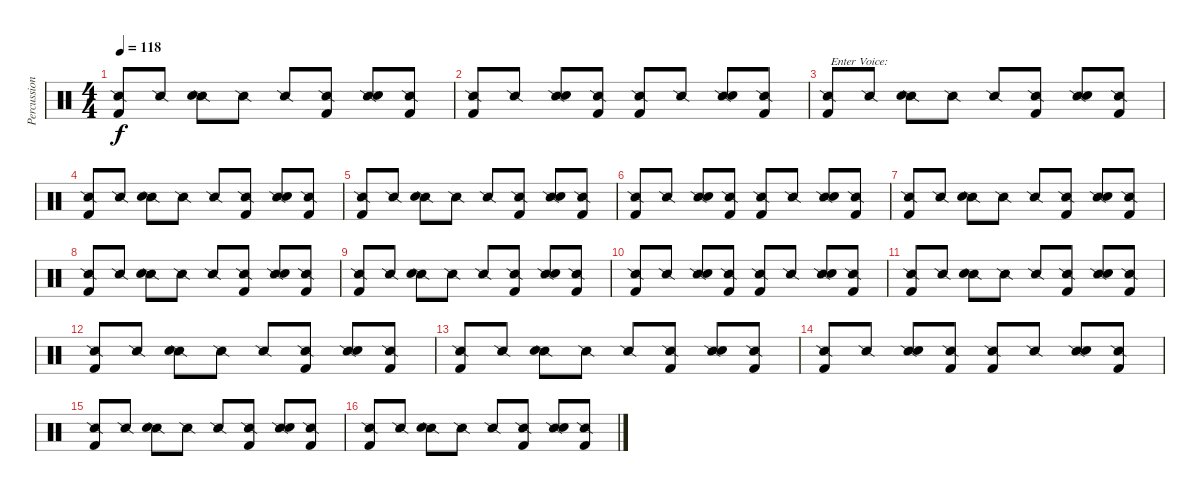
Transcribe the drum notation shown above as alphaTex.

\track ("Percussion" "Percussion") {instrument percussion}
\staff {score}
\articulation defaults
\ts (4 4)
\tempo 118
\clef neutral
\ks c
("Snare (side stick) 2" "Kick (hit) 2").8{dy f} "Snare (side stick) 2".8 ("Snare (side stick) 2" "Electric Snare (hit)").8 "Snare (side stick) 2".8 "Snare (side stick) 2".8 ("Snare (side stick) 2" "Kick (hit) 2").8 ("Snare (side stick) 2" "Electric Snare (hit)").8 ("Snare (side stick) 2" "Kick (hit) 2").8 |
("Snare (side stick) 2" "Kick (hit) 2").8 "Snare (side stick) 2".8 ("Snare (side stick) 2" "Electric Snare (hit)").8 ("Snare (side stick) 2" "Kick (hit) 2").8 ("Snare (side stick) 2" "Kick (hit) 2").8 "Snare (side stick) 2".8 ("Snare (side stick) 2" "Electric Snare (hit)").8 ("Snare (side stick) 2" "Kick (hit) 2").8 |
("Snare (side stick) 2" "Kick (hit) 2").8{txt "Enter Voice:"} "Snare (side stick) 2".8 ("Snare (side stick) 2" "Electric Snare (hit)").8 "Snare (side stick) 2".8 "Snare (side stick) 2".8 ("Snare (side stick) 2" "Kick (hit) 2").8 ("Snare (side stick) 2" "Electric Snare (hit)").8 ("Snare (side stick) 2" "Kick (hit) 2").8 |
("Snare (side stick) 2" "Kick (hit) 2").8 "Snare (side stick) 2".8 ("Snare (side stick) 2" "Electric Snare (hit)").8 "Snare (side stick) 2".8 "Snare (side stick) 2".8 ("Snare (side stick) 2" "Kick (hit) 2").8 ("Snare (side stick) 2" "Electric Snare (hit)").8 ("Snare (side stick) 2" "Kick (hit) 2").8 |
("Snare (side stick) 2" "Kick (hit) 2").8 "Snare (side stick) 2".8 ("Snare (side stick) 2" "Electric Snare (hit)").8 "Snare (side stick) 2".8 "Snare (side stick) 2".8 ("Snare (side stick) 2" "Kick (hit) 2").8 ("Snare (side stick) 2" "Electric Snare (hit)").8 ("Snare (side stick) 2" "Kick (hit) 2").8 |
("Snare (side stick) 2" "Kick (hit) 2").8 "Snare (side stick) 2".8 ("Snare (side stick) 2" "Electric Snare (hit)").8 ("Snare (side stick) 2" "Kick (hit) 2").8 ("Snare (side stick) 2" "Kick (hit) 2").8 "Snare (side stick) 2".8 ("Snare (side stick) 2" "Electric Snare (hit)").8 ("Snare (side stick) 2" "Kick (hit) 2").8 |
("Snare (side stick) 2" "Kick (hit) 2").8 "Snare (side stick) 2".8 ("Snare (side stick) 2" "Electric Snare (hit)").8 "Snare (side stick) 2".8 "Snare (side stick) 2".8 ("Snare (side stick) 2" "Kick (hit) 2").8 ("Snare (side stick) 2" "Electric Snare (hit)").8 ("Snare (side stick) 2" "Kick (hit) 2").8 |
("Snare (side stick) 2" "Kick (hit) 2").8 "Snare (side stick) 2".8 ("Snare (side stick) 2" "Electric Snare (hit)").8 "Snare (side stick) 2".8 "Snare (side stick) 2".8 ("Snare (side stick) 2" "Kick (hit) 2").8 ("Snare (side stick) 2" "Electric Snare (hit)").8 ("Snare (side stick) 2" "Kick (hit) 2").8 |
("Snare (side stick) 2" "Kick (hit) 2").8 "Snare (side stick) 2".8 ("Snare (side stick) 2" "Electric Snare (hit)").8 "Snare (side stick) 2".8 "Snare (side stick) 2".8 ("Snare (side stick) 2" "Kick (hit) 2").8 ("Snare (side stick) 2" "Electric Snare (hit)").8 ("Snare (side stick) 2" "Kick (hit) 2").8 |
("Snare (side stick) 2" "Kick (hit) 2").8 "Snare (side stick) 2".8 ("Snare (side stick) 2" "Electric Snare (hit)").8 ("Snare (side stick) 2" "Kick (hit) 2").8 ("Snare (side stick) 2" "Kick (hit) 2").8 "Snare (side stick) 2".8 ("Snare (side stick) 2" "Electric Snare (hit)").8 ("Snare (side stick) 2" "Kick (hit) 2").8 |
("Snare (side stick) 2" "Kick (hit) 2").8 "Snare (side stick) 2".8 ("Snare (side stick) 2" "Electric Snare (hit)").8 "Snare (side stick) 2".8 "Snare (side stick) 2".8 ("Snare (side stick) 2" "Kick (hit) 2").8 ("Snare (side stick) 2" "Electric Snare (hit)").8 ("Snare (side stick) 2" "Kick (hit) 2").8 |
("Snare (side stick) 2" "Kick (hit) 2").8 "Snare (side stick) 2".8 ("Snare (side stick) 2" "Electric Snare (hit)").8 "Snare (side stick) 2".8 "Snare (side stick) 2".8 ("Snare (side stick) 2" "Kick (hit) 2").8 ("Snare (side stick) 2" "Electric Snare (hit)").8 ("Snare (side stick) 2" "Kick (hit) 2").8 |
("Snare (side stick) 2" "Kick (hit) 2").8 "Snare (side stick) 2".8 ("Snare (side stick) 2" "Electric Snare (hit)").8 "Snare (side stick) 2".8 "Snare (side stick) 2".8 ("Snare (side stick) 2" "Kick (hit) 2").8 ("Snare (side stick) 2" "Electric Snare (hit)").8 ("Snare (side stick) 2" "Kick (hit) 2").8 |
("Snare (side stick) 2" "Kick (hit) 2").8 "Snare (side stick) 2".8 ("Snare (side stick) 2" "Electric Snare (hit)").8 ("Snare (side stick) 2" "Kick (hit) 2").8 ("Snare (side stick) 2" "Kick (hit) 2").8 "Snare (side stick) 2".8 ("Snare (side stick) 2" "Electric Snare (hit)").8 ("Snare (side stick) 2" "Kick (hit) 2").8 |
("Snare (side stick) 2" "Kick (hit) 2").8 "Snare (side stick) 2".8 ("Snare (side stick) 2" "Electric Snare (hit)").8 "Snare (side stick) 2".8 "Snare (side stick) 2".8 ("Snare (side stick) 2" "Kick (hit) 2").8 ("Snare (side stick) 2" "Electric Snare (hit)").8 ("Snare (side stick) 2" "Kick (hit) 2").8 |
("Snare (side stick) 2" "Kick (hit) 2").8 "Snare (side stick) 2".8 ("Snare (side stick) 2" "Electric Snare (hit)").8 "Snare (side stick) 2".8 "Snare (side stick) 2".8 ("Snare (side stick) 2" "Kick (hit) 2").8 ("Snare (side stick) 2" "Electric Snare (hit)").8 ("Snare (side stick) 2" "Kick (hit) 2").8
